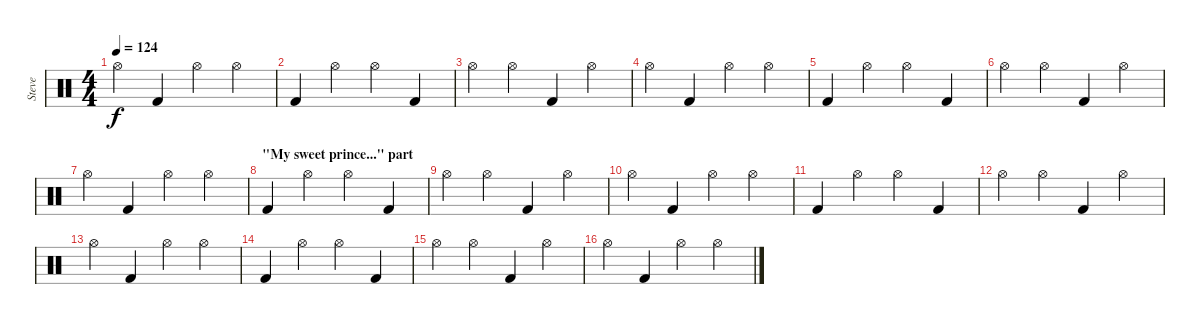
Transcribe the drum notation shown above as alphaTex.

\track ("Steve" "Steve") {instrument percussion}
\staff {score}
\articulation defaults
\ts (4 4)
\tempo 124
\clef neutral
\ks c "Hi-Hat (open)".4{dy f} "Kick (hit) 2".4 "Hi-Hat (open)".4 "Hi-Hat (open)".4
|
"Kick (hit) 2".4 "Hi-Hat (open)".4 "Hi-Hat (open)".4 "Kick (hit) 2".4 |
"Hi-Hat (open)".4 "Hi-Hat (open)".4 "Kick (hit) 2".4 "Hi-Hat (open)".4 |
"Hi-Hat (open)".4 "Kick (hit) 2".4 "Hi-Hat (open)".4 "Hi-Hat (open)".4 |
"Kick (hit) 2".4 "Hi-Hat (open)".4 "Hi-Hat (open)".4 "Kick (hit) 2".4 |
"Hi-Hat (open)".4 "Hi-Hat (open)".4 "Kick (hit) 2".4 "Hi-Hat (open)".4 |
"Hi-Hat (open)".4 "Kick (hit) 2".4 "Hi-Hat (open)".4 "Hi-Hat (open)".4 |
\section ("" "\"My sweet prince...\" part")
"Kick (hit) 2".4 "Hi-Hat (open)".4 "Hi-Hat (open)".4 "Kick (hit) 2".4 |
"Hi-Hat (open)".4 "Hi-Hat (open)".4 "Kick (hit) 2".4 "Hi-Hat (open)".4 |
"Hi-Hat (open)".4 "Kick (hit) 2".4 "Hi-Hat (open)".4 "Hi-Hat (open)".4 |
"Kick (hit) 2".4 "Hi-Hat (open)".4 "Hi-Hat (open)".4 "Kick (hit) 2".4 |
"Hi-Hat (open)".4 "Hi-Hat (open)".4 "Kick (hit) 2".4 "Hi-Hat (open)".4 |
"Hi-Hat (open)".4 "Kick (hit) 2".4 "Hi-Hat (open)".4 "Hi-Hat (open)".4 |
"Kick (hit) 2".4 "Hi-Hat (open)".4 "Hi-Hat (open)".4 "Kick (hit) 2".4 |
"Hi-Hat (open)".4 "Hi-Hat (open)".4 "Kick (hit) 2".4 "Hi-Hat (open)".4 |
"Hi-Hat (open)".4 "Kick (hit) 2".4 "Hi-Hat (open)".4 "Hi-Hat (open)".4
